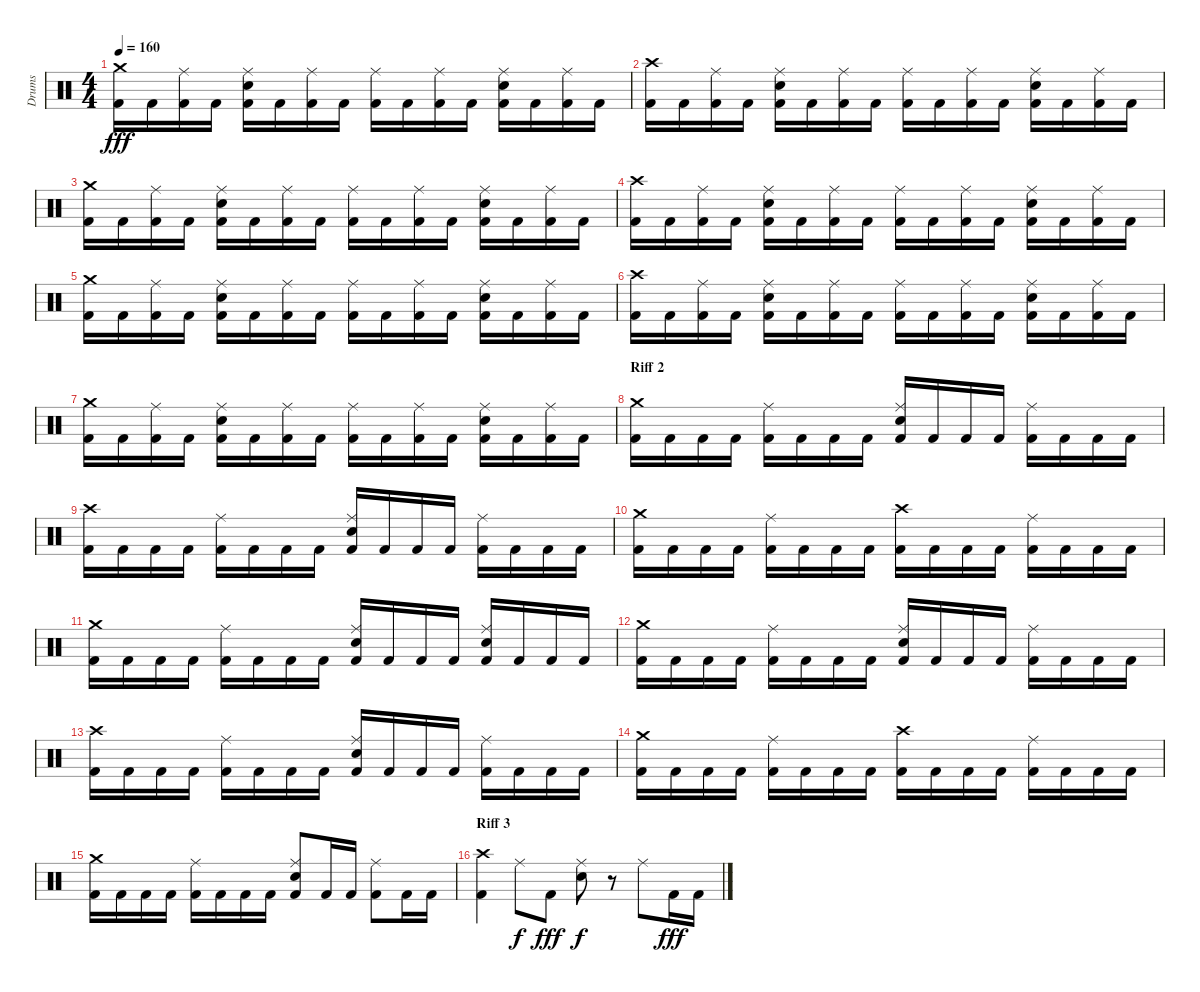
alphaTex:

\track ("Drums" "Drums") {instrument percussion}
\staff {score}
\articulation defaults
\ts (4 4)
\tempo 160
\clef neutral
\ks c
("Crash medium (hit)" "Kick (hit) 2").16{dy fff} "Kick (hit) 2".16 ("Ride (middle)" "Kick (hit) 2").16 "Kick (hit) 2".16 ("Ride (middle)" "Electric Snare (hit)" "Kick (hit) 2").16 "Kick (hit) 2".16 ("Ride (middle)" "Kick (hit) 2").16 "Kick (hit) 2".16 ("Ride (middle)" "Kick (hit) 2").16 "Kick (hit) 2".16 ("Ride (middle)" "Kick (hit) 2").16 "Kick (hit) 2".16 ("Ride (middle)" "Electric Snare (hit)" "Kick (hit) 2").16 "Kick (hit) 2".16 ("Ride (middle)" "Kick (hit) 2").16 "Kick (hit) 2".16 |
("Crash high (hit)" "Kick (hit) 2").16 "Kick (hit) 2".16 ("Ride (middle)" "Kick (hit) 2").16 "Kick (hit) 2".16 ("Ride (middle)" "Electric Snare (hit)" "Kick (hit) 2").16 "Kick (hit) 2".16 ("Ride (middle)" "Kick (hit) 2").16 "Kick (hit) 2".16 ("Ride (middle)" "Kick (hit) 2").16 "Kick (hit) 2".16 ("Ride (middle)" "Kick (hit) 2").16 "Kick (hit) 2".16 ("Ride (middle)" "Electric Snare (hit)" "Kick (hit) 2").16 "Kick (hit) 2".16 ("Ride (middle)" "Kick (hit) 2").16 "Kick (hit) 2".16 |
("Crash medium (hit)" "Kick (hit) 2").16 "Kick (hit) 2".16 ("Ride (middle)" "Kick (hit) 2").16 "Kick (hit) 2".16 ("Ride (middle)" "Electric Snare (hit)" "Kick (hit) 2").16 "Kick (hit) 2".16 ("Ride (middle)" "Kick (hit) 2").16 "Kick (hit) 2".16 ("Ride (middle)" "Kick (hit) 2").16 "Kick (hit) 2".16 ("Ride (middle)" "Kick (hit) 2").16 "Kick (hit) 2".16 ("Ride (middle)" "Electric Snare (hit)" "Kick (hit) 2").16 "Kick (hit) 2".16 ("Ride (middle)" "Kick (hit) 2").16 "Kick (hit) 2".16 |
("Crash high (hit)" "Kick (hit) 2").16 "Kick (hit) 2".16 ("Ride (middle)" "Kick (hit) 2").16 "Kick (hit) 2".16 ("Ride (middle)" "Electric Snare (hit)" "Kick (hit) 2").16 "Kick (hit) 2".16 ("Ride (middle)" "Kick (hit) 2").16 "Kick (hit) 2".16 ("Ride (middle)" "Kick (hit) 2").16 "Kick (hit) 2".16 ("Ride (middle)" "Kick (hit) 2").16 "Kick (hit) 2".16 ("Ride (middle)" "Electric Snare (hit)" "Kick (hit) 2").16 "Kick (hit) 2".16 ("Ride (middle)" "Kick (hit) 2").16 "Kick (hit) 2".16 |
("Crash medium (hit)" "Kick (hit) 2").16 "Kick (hit) 2".16 ("Ride (middle)" "Kick (hit) 2").16 "Kick (hit) 2".16 ("Ride (middle)" "Electric Snare (hit)" "Kick (hit) 2").16 "Kick (hit) 2".16 ("Ride (middle)" "Kick (hit) 2").16 "Kick (hit) 2".16 ("Ride (middle)" "Kick (hit) 2").16 "Kick (hit) 2".16 ("Ride (middle)" "Kick (hit) 2").16 "Kick (hit) 2".16 ("Ride (middle)" "Electric Snare (hit)" "Kick (hit) 2").16 "Kick (hit) 2".16 ("Ride (middle)" "Kick (hit) 2").16 "Kick (hit) 2".16 |
("Crash high (hit)" "Kick (hit) 2").16 "Kick (hit) 2".16 ("Ride (middle)" "Kick (hit) 2").16 "Kick (hit) 2".16 ("Ride (middle)" "Electric Snare (hit)" "Kick (hit) 2").16 "Kick (hit) 2".16 ("Ride (middle)" "Kick (hit) 2").16 "Kick (hit) 2".16 ("Ride (middle)" "Kick (hit) 2").16 "Kick (hit) 2".16 ("Ride (middle)" "Kick (hit) 2").16 "Kick (hit) 2".16 ("Ride (middle)" "Electric Snare (hit)" "Kick (hit) 2").16 "Kick (hit) 2".16 ("Ride (middle)" "Kick (hit) 2").16 "Kick (hit) 2".16 |
("Crash medium (hit)" "Kick (hit) 2").16 "Kick (hit) 2".16 ("Ride (middle)" "Kick (hit) 2").16 "Kick (hit) 2".16 ("Ride (middle)" "Electric Snare (hit)" "Kick (hit) 2").16 "Kick (hit) 2".16 ("Ride (middle)" "Kick (hit) 2").16 "Kick (hit) 2".16 ("Ride (middle)" "Kick (hit) 2").16 "Kick (hit) 2".16 ("Ride (middle)" "Kick (hit) 2").16 "Kick (hit) 2".16 ("Ride (middle)" "Electric Snare (hit)" "Kick (hit) 2").16 "Kick (hit) 2".16 ("Ride (middle)" "Kick (hit) 2").16 "Kick (hit) 2".16 |
\section ("" "Riff 2")
("Crash medium (hit)" "Kick (hit) 2").16 "Kick (hit) 2".16 "Kick (hit) 2".16 "Kick (hit) 2".16 ("Ride (middle)" "Kick (hit) 2").16 "Kick (hit) 2".16 "Kick (hit) 2".16 "Kick (hit) 2".16 ("Ride (middle)" "Electric Snare (hit)" "Kick (hit) 2").16 "Kick (hit) 2".16 "Kick (hit) 2".16 "Kick (hit) 2".16 ("Ride (middle)" "Kick (hit) 2").16 "Kick (hit) 2".16 "Kick (hit) 2".16 "Kick (hit) 2".16 |
("Crash high (hit)" "Kick (hit) 2").16 "Kick (hit) 2".16 "Kick (hit) 2".16 "Kick (hit) 2".16 ("Ride (middle)" "Kick (hit) 2").16 "Kick (hit) 2".16 "Kick (hit) 2".16 "Kick (hit) 2".16 ("Ride (middle)" "Electric Snare (hit)" "Kick (hit) 2").16 "Kick (hit) 2".16 "Kick (hit) 2".16 "Kick (hit) 2".16 ("Ride (middle)" "Kick (hit) 2").16 "Kick (hit) 2".16 "Kick (hit) 2".16 "Kick (hit) 2".16 |
("Crash medium (hit)" "Kick (hit) 2").16 "Kick (hit) 2".16 "Kick (hit) 2".16 "Kick (hit) 2".16 ("Ride (middle)" "Kick (hit) 2").16 "Kick (hit) 2".16 "Kick (hit) 2".16 "Kick (hit) 2".16 ("Crash high (hit)" "Kick (hit) 2").16 "Kick (hit) 2".16 "Kick (hit) 2".16 "Kick (hit) 2".16 ("Ride (middle)" "Kick (hit) 2").16 "Kick (hit) 2".16 "Kick (hit) 2".16 "Kick (hit) 2".16 |
("Crash medium (hit)" "Kick (hit) 2").16 "Kick (hit) 2".16 "Kick (hit) 2".16 "Kick (hit) 2".16 ("Ride (middle)" "Kick (hit) 2").16 "Kick (hit) 2".16 "Kick (hit) 2".16 "Kick (hit) 2".16 ("Ride (middle)" "Electric Snare (hit)" "Kick (hit) 2").16 "Kick (hit) 2".16 "Kick (hit) 2".16 "Kick (hit) 2".16 ("Ride (middle)" "Electric Snare (hit)" "Kick (hit) 2").16 "Kick (hit) 2".16 "Kick (hit) 2".16 "Kick (hit) 2".16 |
("Crash medium (hit)" "Kick (hit) 2").16 "Kick (hit) 2".16 "Kick (hit) 2".16 "Kick (hit) 2".16 ("Ride (middle)" "Kick (hit) 2").16 "Kick (hit) 2".16 "Kick (hit) 2".16 "Kick (hit) 2".16 ("Ride (middle)" "Electric Snare (hit)" "Kick (hit) 2").16 "Kick (hit) 2".16 "Kick (hit) 2".16 "Kick (hit) 2".16 ("Ride (middle)" "Kick (hit) 2").16 "Kick (hit) 2".16 "Kick (hit) 2".16 "Kick (hit) 2".16 |
("Crash high (hit)" "Kick (hit) 2").16 "Kick (hit) 2".16 "Kick (hit) 2".16 "Kick (hit) 2".16 ("Ride (middle)" "Kick (hit) 2").16 "Kick (hit) 2".16 "Kick (hit) 2".16 "Kick (hit) 2".16 ("Ride (middle)" "Electric Snare (hit)" "Kick (hit) 2").16 "Kick (hit) 2".16 "Kick (hit) 2".16 "Kick (hit) 2".16 ("Ride (middle)" "Kick (hit) 2").16 "Kick (hit) 2".16 "Kick (hit) 2".16 "Kick (hit) 2".16 |
("Crash medium (hit)" "Kick (hit) 2").16 "Kick (hit) 2".16 "Kick (hit) 2".16 "Kick (hit) 2".16 ("Ride (middle)" "Kick (hit) 2").16 "Kick (hit) 2".16 "Kick (hit) 2".16 "Kick (hit) 2".16 ("Crash high (hit)" "Kick (hit) 2").16 "Kick (hit) 2".16 "Kick (hit) 2".16 "Kick (hit) 2".16 ("Ride (middle)" "Kick (hit) 2").16 "Kick (hit) 2".16 "Kick (hit) 2".16 "Kick (hit) 2".16 |
("Crash medium (hit)" "Kick (hit) 2").16 "Kick (hit) 2".16 "Kick (hit) 2".16 "Kick (hit) 2".16 ("Ride (middle)" "Kick (hit) 2").16 "Kick (hit) 2".16 "Kick (hit) 2".16 "Kick (hit) 2".16 ("Ride (middle)" "Electric Snare (hit)" "Kick (hit) 2").8 "Kick (hit) 2".16 "Kick (hit) 2".16 ("Ride (middle)" "Kick (hit) 2").8 "Kick (hit) 2".16 "Kick (hit) 2".16 |
\section ("" "Riff 3")
("Crash high (hit)" "Kick (hit) 2").4 "Ride (middle)".8{dy f} "Kick (hit) 2".8{dy fff} ("Ride (middle)" "Electric Snare (hit)").8{dy f} r.8 "Ride (middle)".8 "Kick (hit) 2".16{dy fff} "Kick (hit) 2".16
